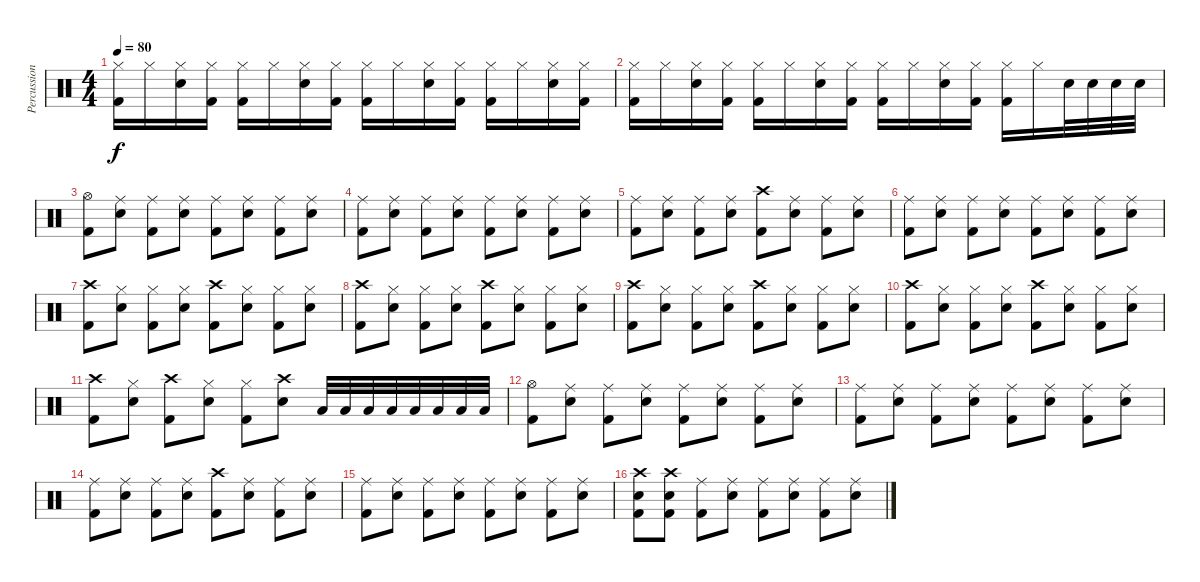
\track ("Percussion" "Percussion") {instrument percussion}
\staff {score}
\articulation defaults
\ts (4 4)
\tempo 80
\clef neutral
\ks c
("Hi-Hat (closed)" "Kick (hit) 2").16{dy f} "Hi-Hat (closed)".16 ("Hi-Hat (closed)" "Snare (hit) 2").16 ("Hi-Hat (closed)" "Kick (hit) 2").16 ("Hi-Hat (closed)" "Kick (hit) 2").16 "Hi-Hat (closed)".16 ("Hi-Hat (closed)" "Snare (hit) 2").16 ("Hi-Hat (closed)" "Kick (hit) 2").16 ("Hi-Hat (closed)" "Kick (hit) 2").16 "Hi-Hat (closed)".16 ("Hi-Hat (closed)" "Snare (hit) 2").16 ("Hi-Hat (closed)" "Kick (hit) 2").16 ("Hi-Hat (closed)" "Kick (hit) 2").16 "Hi-Hat (closed)".16 ("Hi-Hat (closed)" "Snare (hit) 2").16 ("Hi-Hat (closed)" "Kick (hit) 2").16 |
("Hi-Hat (closed)" "Kick (hit) 2").16 "Hi-Hat (closed)".16 ("Hi-Hat (closed)" "Snare (hit) 2").16 ("Hi-Hat (closed)" "Kick (hit) 2").16 ("Hi-Hat (closed)" "Kick (hit) 2").16 "Hi-Hat (closed)".16 ("Hi-Hat (closed)" "Snare (hit) 2").16 ("Hi-Hat (closed)" "Kick (hit) 2").16 ("Hi-Hat (closed)" "Kick (hit) 2").16 "Hi-Hat (closed)".16 ("Hi-Hat (closed)" "Snare (hit) 2").16 ("Hi-Hat (closed)" "Kick (hit) 2").16 ("Hi-Hat (closed)" "Kick (hit) 2").16 "Hi-Hat (closed)".16 "Snare (hit) 2".32 "Snare (hit) 2".32 "Snare (hit) 2".32 "Snare (hit) 2".32 |
("Hi-Hat (open)" "Kick (hit) 2").8 ("Ride (middle)" "Snare (hit) 2").8 ("Ride (middle)" "Kick (hit) 2").8 ("Ride (middle)" "Snare (hit) 2").8 ("Ride (middle)" "Kick (hit) 2").8 ("Ride (middle)" "Snare (hit) 2").8 ("Ride (middle)" "Kick (hit) 2").8 ("Ride (middle)" "Snare (hit) 2").8 |
("Ride (middle)" "Kick (hit) 2").8 ("Ride (middle)" "Snare (hit) 2").8 ("Ride (middle)" "Kick (hit) 2").8 ("Ride (middle)" "Snare (hit) 2").8 ("Ride (middle)" "Kick (hit) 2").8 ("Ride (middle)" "Snare (hit) 2").8 ("Ride (middle)" "Kick (hit) 2").8 ("Ride (middle)" "Snare (hit) 2").8 |
("Ride (middle)" "Kick (hit) 2").8 ("Ride (middle)" "Snare (hit) 2").8 ("Ride (middle)" "Kick (hit) 2").8 ("Ride (middle)" "Snare (hit) 2").8 ("Crash high (hit)" "Kick (hit) 2").8 ("Ride (middle)" "Snare (hit) 2").8 ("Ride (middle)" "Kick (hit) 2").8 ("Ride (middle)" "Snare (hit) 2").8 |
("Ride (middle)" "Kick (hit) 2").8 ("Ride (middle)" "Snare (hit) 2").8 ("Ride (middle)" "Kick (hit) 2").8 ("Ride (middle)" "Snare (hit) 2").8 ("Ride (middle)" "Kick (hit) 2").8 ("Ride (middle)" "Snare (hit) 2").8 ("Ride (middle)" "Kick (hit) 2").8 ("Ride (middle)" "Snare (hit) 2").8 |
("Crash high (hit)" "Kick (hit) 2").8 ("Hi-Hat (closed)" "Snare (hit) 2").8 ("Hi-Hat (closed)" "Kick (hit) 2").8 ("Hi-Hat (closed)" "Snare (hit) 2").8 ("Crash high (hit)" "Kick (hit) 2").8 ("Hi-Hat (closed)" "Snare (hit) 2").8 ("Hi-Hat (closed)" "Kick (hit) 2").8 ("Hi-Hat (closed)" "Snare (hit) 2").8 |
("Crash high (hit)" "Kick (hit) 2").8 ("Hi-Hat (closed)" "Snare (hit) 2").8 ("Hi-Hat (closed)" "Kick (hit) 2").8 ("Hi-Hat (closed)" "Snare (hit) 2").8 ("Crash high (hit)" "Kick (hit) 2").8 ("Hi-Hat (closed)" "Snare (hit) 2").8 ("Hi-Hat (closed)" "Kick (hit) 2").8 ("Hi-Hat (closed)" "Snare (hit) 2").8 |
("Crash high (hit)" "Kick (hit) 2").8 ("Hi-Hat (closed)" "Snare (hit) 2").8 ("Hi-Hat (closed)" "Kick (hit) 2").8 ("Hi-Hat (closed)" "Snare (hit) 2").8 ("Crash high (hit)" "Kick (hit) 2").8 ("Hi-Hat (closed)" "Snare (hit) 2").8 ("Hi-Hat (closed)" "Kick (hit) 2").8 ("Hi-Hat (closed)" "Snare (hit) 2").8 |
("Crash high (hit)" "Kick (hit) 2").8 ("Hi-Hat (closed)" "Snare (hit) 2").8 ("Hi-Hat (closed)" "Kick (hit) 2").8 ("Hi-Hat (closed)" "Snare (hit) 2").8 ("Crash high (hit)" "Kick (hit) 2").8 ("Hi-Hat (closed)" "Snare (hit) 2").8 ("Hi-Hat (closed)" "Kick (hit) 2").8 ("Hi-Hat (closed)" "Snare (hit) 2").8 |
("Crash high (hit)" "Kick (hit) 2").8 ("Hi-Hat (closed)" "Snare (hit) 2").8 ("Crash high (hit)" "Kick (hit) 2").8 ("Hi-Hat (closed)" "Snare (hit) 2").8 ("Hi-Hat (closed)" "Kick (hit) 2").8 ("Crash high (hit)" "Snare (hit) 2").8 "Low Floor Tom (hit)".32 "Low Floor Tom (hit)".32 "Low Floor Tom (hit)".32 "Low Floor Tom (hit)".32 "Low Floor Tom (hit)".32 "Low Floor Tom (hit)".32 "Low Floor Tom (hit)".32 "Low Floor Tom (hit)".32 |
("Hi-Hat (open)" "Kick (hit) 2").8 ("Ride (middle)" "Snare (hit) 2").8 ("Ride (middle)" "Kick (hit) 2").8 ("Ride (middle)" "Snare (hit) 2").8 ("Ride (middle)" "Kick (hit) 2").8 ("Ride (middle)" "Snare (hit) 2").8 ("Ride (middle)" "Kick (hit) 2").8 ("Ride (middle)" "Snare (hit) 2").8 |
("Ride (middle)" "Kick (hit) 2").8 ("Ride (middle)" "Snare (hit) 2").8 ("Ride (middle)" "Kick (hit) 2").8 ("Ride (middle)" "Snare (hit) 2").8 ("Ride (middle)" "Kick (hit) 2").8 ("Ride (middle)" "Snare (hit) 2").8 ("Ride (middle)" "Kick (hit) 2").8 ("Ride (middle)" "Snare (hit) 2").8 |
("Ride (middle)" "Kick (hit) 2").8 ("Ride (middle)" "Snare (hit) 2").8 ("Ride (middle)" "Kick (hit) 2").8 ("Ride (middle)" "Snare (hit) 2").8 ("Crash high (hit)" "Kick (hit) 2").8 ("Ride (middle)" "Snare (hit) 2").8 ("Ride (middle)" "Kick (hit) 2").8 ("Ride (middle)" "Snare (hit) 2").8 |
("Ride (middle)" "Kick (hit) 2").8 ("Ride (middle)" "Snare (hit) 2").8 ("Ride (middle)" "Kick (hit) 2").8 ("Ride (middle)" "Snare (hit) 2").8 ("Ride (middle)" "Kick (hit) 2").8 ("Ride (middle)" "Snare (hit) 2").8 ("Ride (middle)" "Kick (hit) 2").8 ("Ride (middle)" "Snare (hit) 2").8 |
("Crash high (hit)" "Snare (hit) 2" "Kick (hit) 2").8 ("Crash high (hit)" "Snare (hit) 2" "Kick (hit) 2").8 ("Ride (middle)" "Kick (hit) 2").8 ("Ride (middle)" "Snare (hit) 2").8 ("Ride (middle)" "Kick (hit) 2").8 ("Ride (middle)" "Snare (hit) 2").8 ("Ride (middle)" "Kick (hit) 2").8 ("Ride (middle)" "Snare (hit) 2").8
